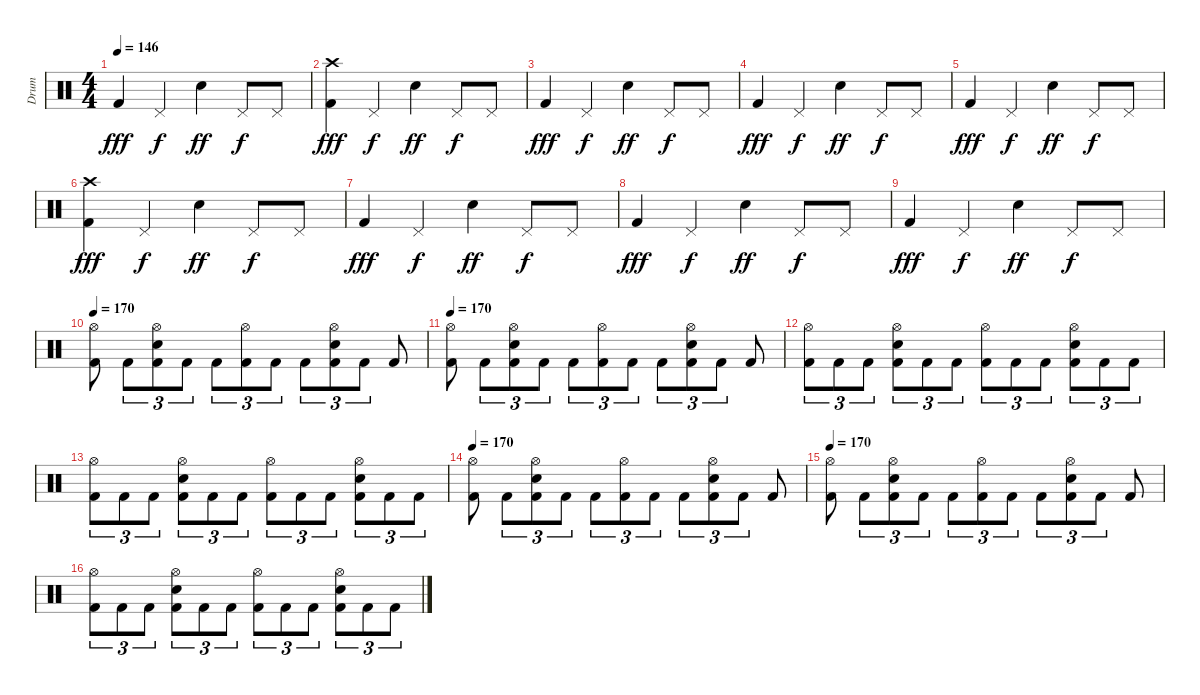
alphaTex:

\track ("Drum" "Drum") {instrument percussion}
\staff {score}
\articulation defaults
\ts (4 4)
\tempo 146
\clef neutral
\ks c "Kick (hit) 2".4{dy fff} "Pedal Hi-Hat (hit)".4{dy f} "Electric Snare (hit)".4{dy ff} "Pedal Hi-Hat (hit)".8{dy f} "Pedal Hi-Hat (hit)".8
|
("Crash high (hit)" "Kick (hit) 2").4{dy fff} "Pedal Hi-Hat (hit)".4{dy f} "Electric Snare (hit)".4{dy ff} "Pedal Hi-Hat (hit)".8{dy f} "Pedal Hi-Hat (hit)".8 |
"Kick (hit) 2".4{dy fff} "Pedal Hi-Hat (hit)".4{dy f} "Electric Snare (hit)".4{dy ff} "Pedal Hi-Hat (hit)".8{dy f} "Pedal Hi-Hat (hit)".8 |
"Kick (hit) 2".4{dy fff} "Pedal Hi-Hat (hit)".4{dy f} "Electric Snare (hit)".4{dy ff} "Pedal Hi-Hat (hit)".8{dy f} "Pedal Hi-Hat (hit)".8 |
"Kick (hit) 2".4{dy fff} "Pedal Hi-Hat (hit)".4{dy f} "Electric Snare (hit)".4{dy ff} "Pedal Hi-Hat (hit)".8{dy f} "Pedal Hi-Hat (hit)".8 |
("Crash high (hit)" "Kick (hit) 2").4{dy fff} "Pedal Hi-Hat (hit)".4{dy f} "Electric Snare (hit)".4{dy ff} "Pedal Hi-Hat (hit)".8{dy f} "Pedal Hi-Hat (hit)".8 |
"Kick (hit) 2".4{dy fff} "Pedal Hi-Hat (hit)".4{dy f} "Electric Snare (hit)".4{dy ff} "Pedal Hi-Hat (hit)".8{dy f} "Pedal Hi-Hat (hit)".8 |
"Kick (hit) 2".4{dy fff} "Pedal Hi-Hat (hit)".4{dy f} "Electric Snare (hit)".4{dy ff} "Pedal Hi-Hat (hit)".8{dy f} "Pedal Hi-Hat (hit)".8 |
"Kick (hit) 2".4{dy fff} "Pedal Hi-Hat (hit)".4{dy f} "Electric Snare (hit)".4{dy ff} "Pedal Hi-Hat (hit)".8{dy f} "Pedal Hi-Hat (hit)".8 |
\tempo 170
("Kick (hit) 2" "Hi-Hat (open)").8 "Kick (hit) 2".8{tu (3 2)} ("Kick (hit) 2" "Electric Snare (hit)" "Hi-Hat (open)").8{tu (3 2)} "Kick (hit) 2".8{tu (3 2)} "Kick (hit) 2".8{tu (3 2)} ("Kick (hit) 2" "Hi-Hat (open)").8{tu (3 2)} "Kick (hit) 2".8{tu (3 2)} "Kick (hit) 2".8{tu (3 2)} ("Kick (hit) 2" "Electric Snare (hit)" "Hi-Hat (open)").8{tu (3 2)} "Kick (hit) 2".8{tu (3 2)} "Kick (hit) 2".8 |
\tempo 170
("Kick (hit) 2" "Hi-Hat (open)").8 "Kick (hit) 2".8{tu (3 2)} ("Kick (hit) 2" "Electric Snare (hit)" "Hi-Hat (open)").8{tu (3 2)} "Kick (hit) 2".8{tu (3 2)} "Kick (hit) 2".8{tu (3 2)} ("Kick (hit) 2" "Hi-Hat (open)").8{tu (3 2)} "Kick (hit) 2".8{tu (3 2)} "Kick (hit) 2".8{tu (3 2)} ("Kick (hit) 2" "Electric Snare (hit)" "Hi-Hat (open)").8{tu (3 2)} "Kick (hit) 2".8{tu (3 2)} "Kick (hit) 2".8 |
("Kick (hit) 2" "Hi-Hat (open)").8{tu (3 2)} "Kick (hit) 2".8{tu (3 2)} "Kick (hit) 2".8{tu (3 2)} ("Kick (hit) 2" "Electric Snare (hit)" "Hi-Hat (open)").8{tu (3 2)} "Kick (hit) 2".8{tu (3 2)} "Kick (hit) 2".8{tu (3 2)} ("Kick (hit) 2" "Hi-Hat (open)").8{tu (3 2)} "Kick (hit) 2".8{tu (3 2)} "Kick (hit) 2".8{tu (3 2)} ("Kick (hit) 2" "Electric Snare (hit)" "Hi-Hat (open)").8{tu (3 2)} "Kick (hit) 2".8{tu (3 2)} "Kick (hit) 2".8{tu (3 2)} |
("Kick (hit) 2" "Hi-Hat (open)").8{tu (3 2)} "Kick (hit) 2".8{tu (3 2)} "Kick (hit) 2".8{tu (3 2)} ("Kick (hit) 2" "Electric Snare (hit)" "Hi-Hat (open)").8{tu (3 2)} "Kick (hit) 2".8{tu (3 2)} "Kick (hit) 2".8{tu (3 2)} ("Kick (hit) 2" "Hi-Hat (open)").8{tu (3 2)} "Kick (hit) 2".8{tu (3 2)} "Kick (hit) 2".8{tu (3 2)} ("Kick (hit) 2" "Electric Snare (hit)" "Hi-Hat (open)").8{tu (3 2)} "Kick (hit) 2".8{tu (3 2)} "Kick (hit) 2".8{tu (3 2)} |
\tempo 170
("Kick (hit) 2" "Hi-Hat (open)").8 "Kick (hit) 2".8{tu (3 2)} ("Kick (hit) 2" "Electric Snare (hit)" "Hi-Hat (open)").8{tu (3 2)} "Kick (hit) 2".8{tu (3 2)} "Kick (hit) 2".8{tu (3 2)} ("Kick (hit) 2" "Hi-Hat (open)").8{tu (3 2)} "Kick (hit) 2".8{tu (3 2)} "Kick (hit) 2".8{tu (3 2)} ("Kick (hit) 2" "Electric Snare (hit)" "Hi-Hat (open)").8{tu (3 2)} "Kick (hit) 2".8{tu (3 2)} "Kick (hit) 2".8 |
\tempo 170
("Kick (hit) 2" "Hi-Hat (open)").8 "Kick (hit) 2".8{tu (3 2)} ("Kick (hit) 2" "Electric Snare (hit)" "Hi-Hat (open)").8{tu (3 2)} "Kick (hit) 2".8{tu (3 2)} "Kick (hit) 2".8{tu (3 2)} ("Kick (hit) 2" "Hi-Hat (open)").8{tu (3 2)} "Kick (hit) 2".8{tu (3 2)} "Kick (hit) 2".8{tu (3 2)} ("Kick (hit) 2" "Electric Snare (hit)" "Hi-Hat (open)").8{tu (3 2)} "Kick (hit) 2".8{tu (3 2)} "Kick (hit) 2".8 |
("Kick (hit) 2" "Hi-Hat (open)").8{tu (3 2)} "Kick (hit) 2".8{tu (3 2)} "Kick (hit) 2".8{tu (3 2)} ("Kick (hit) 2" "Electric Snare (hit)" "Hi-Hat (open)").8{tu (3 2)} "Kick (hit) 2".8{tu (3 2)} "Kick (hit) 2".8{tu (3 2)} ("Kick (hit) 2" "Hi-Hat (open)").8{tu (3 2)} "Kick (hit) 2".8{tu (3 2)} "Kick (hit) 2".8{tu (3 2)} ("Kick (hit) 2" "Electric Snare (hit)" "Hi-Hat (open)").8{tu (3 2)} "Kick (hit) 2".8{tu (3 2)} "Kick (hit) 2".8{tu (3 2)}
